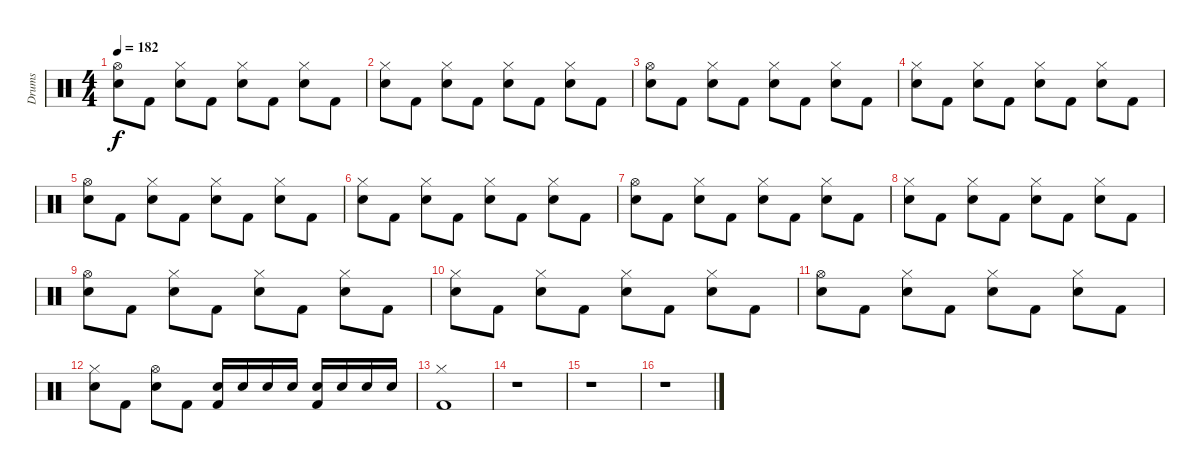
\track ("Drums" "Drums") {instrument percussion}
\staff {score}
\articulation defaults
\ts (4 4)
\tempo 182
\clef neutral
\ks c
("Snare (hit) 2" "Hi-Hat (open)").8{dy f} "Kick (hit) 2".8 ("Snare (hit) 2" "Hi-Hat (closed)").8 "Kick (hit) 2".8 ("Snare (hit) 2" "Hi-Hat (closed)").8 "Kick (hit) 2".8 ("Snare (hit) 2" "Hi-Hat (closed)").8 "Kick (hit) 2".8 |
("Snare (hit) 2" "Hi-Hat (closed)").8 "Kick (hit) 2".8 ("Snare (hit) 2" "Hi-Hat (closed)").8 "Kick (hit) 2".8 ("Snare (hit) 2" "Hi-Hat (closed)").8 "Kick (hit) 2".8 ("Snare (hit) 2" "Hi-Hat (closed)").8 "Kick (hit) 2".8 |
("Snare (hit) 2" "Hi-Hat (open)").8 "Kick (hit) 2".8 ("Snare (hit) 2" "Hi-Hat (closed)").8 "Kick (hit) 2".8 ("Snare (hit) 2" "Hi-Hat (closed)").8 "Kick (hit) 2".8 ("Snare (hit) 2" "Hi-Hat (closed)").8 "Kick (hit) 2".8 |
("Snare (hit) 2" "Hi-Hat (closed)").8 "Kick (hit) 2".8 ("Snare (hit) 2" "Hi-Hat (closed)").8 "Kick (hit) 2".8 ("Snare (hit) 2" "Hi-Hat (closed)").8 "Kick (hit) 2".8 ("Snare (hit) 2" "Hi-Hat (closed)").8 "Kick (hit) 2".8 |
("Snare (hit) 2" "Hi-Hat (open)").8 "Kick (hit) 2".8 ("Snare (hit) 2" "Hi-Hat (closed)").8 "Kick (hit) 2".8 ("Snare (hit) 2" "Hi-Hat (closed)").8 "Kick (hit) 2".8 ("Snare (hit) 2" "Hi-Hat (closed)").8 "Kick (hit) 2".8 |
("Snare (hit) 2" "Hi-Hat (closed)").8 "Kick (hit) 2".8 ("Snare (hit) 2" "Hi-Hat (closed)").8 "Kick (hit) 2".8 ("Snare (hit) 2" "Hi-Hat (closed)").8 "Kick (hit) 2".8 ("Snare (hit) 2" "Hi-Hat (closed)").8 "Kick (hit) 2".8 |
("Snare (hit) 2" "Hi-Hat (open)").8 "Kick (hit) 2".8 ("Snare (hit) 2" "Hi-Hat (closed)").8 "Kick (hit) 2".8 ("Snare (hit) 2" "Hi-Hat (closed)").8 "Kick (hit) 2".8 ("Snare (hit) 2" "Hi-Hat (closed)").8 "Kick (hit) 2".8 |
("Snare (hit) 2" "Hi-Hat (closed)").8 "Kick (hit) 2".8 ("Snare (hit) 2" "Hi-Hat (closed)").8 "Kick (hit) 2".8 ("Snare (hit) 2" "Hi-Hat (closed)").8 "Kick (hit) 2".8 ("Snare (hit) 2" "Hi-Hat (closed)").8 "Kick (hit) 2".8 |
("Snare (hit) 2" "Hi-Hat (open)").8 "Kick (hit) 2".8 ("Snare (hit) 2" "Hi-Hat (closed)").8 "Kick (hit) 2".8 ("Snare (hit) 2" "Hi-Hat (closed)").8 "Kick (hit) 2".8 ("Snare (hit) 2" "Hi-Hat (closed)").8 "Kick (hit) 2".8 |
("Snare (hit) 2" "Hi-Hat (closed)").8 "Kick (hit) 2".8 ("Snare (hit) 2" "Hi-Hat (closed)").8 "Kick (hit) 2".8 ("Snare (hit) 2" "Hi-Hat (closed)").8 "Kick (hit) 2".8 ("Snare (hit) 2" "Hi-Hat (closed)").8 "Kick (hit) 2".8 |
("Snare (hit) 2" "Hi-Hat (open)").8 "Kick (hit) 2".8 ("Snare (hit) 2" "Hi-Hat (closed)").8 "Kick (hit) 2".8 ("Snare (hit) 2" "Hi-Hat (closed)").8 "Kick (hit) 2".8 ("Snare (hit) 2" "Hi-Hat (closed)").8 "Kick (hit) 2".8 |
("Snare (hit) 2" "Hi-Hat (closed)").8 "Kick (hit) 2".8 ("Snare (hit) 2" "Hi-Hat (open)").8 "Kick (hit) 2".8 ("Snare (hit) 2" "Kick (hit) 2").16 "Snare (hit) 2".16 "Snare (hit) 2".16 "Snare (hit) 2".16 ("Snare (hit) 2" "Kick (hit) 2").16 "Snare (hit) 2".16 "Snare (hit) 2".16 "Snare (hit) 2".16 |
("Kick (hit) 2" "Hi-Hat (closed)").1 |
r.1 |
r.1 |
r.1
